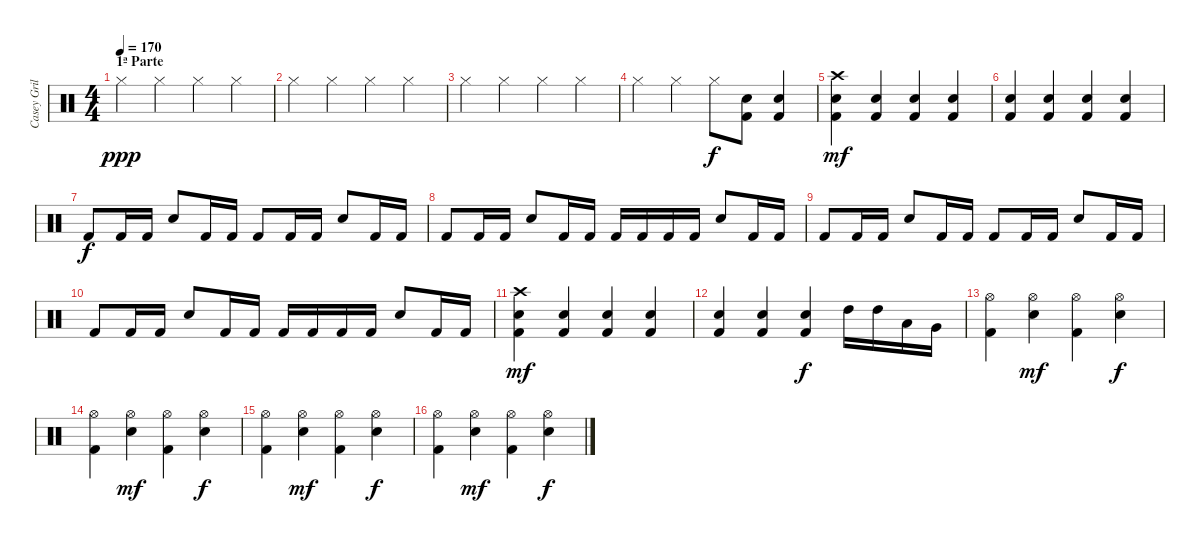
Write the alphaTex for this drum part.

\track ("Casey Grillo" "Casey Gril") {instrument percussion}
\staff {score}
\articulation defaults
\ts (4 4)
\section ("" "1ª Parte")
\tempo 170
\clef neutral
\ks c "Hi-Hat (closed)".4{dy ppp} "Hi-Hat (closed)".4 "Hi-Hat (closed)".4 "Hi-Hat (closed)".4
|
"Hi-Hat (closed)".4 "Hi-Hat (closed)".4 "Hi-Hat (closed)".4 "Hi-Hat (closed)".4 |
"Hi-Hat (closed)".4 "Hi-Hat (closed)".4 "Hi-Hat (closed)".4 "Hi-Hat (closed)".4 |
"Hi-Hat (closed)".4 "Hi-Hat (closed)".4 "Hi-Hat (closed)".8{dy f} ("Snare (hit) 2" "Kick (hit) 2").8 ("Snare (hit) 2" "Kick (hit) 2").4 |
("Snare (hit) 2" "Kick (hit) 2" "Crash high (hit)").4{dy mf} ("Snare (hit) 2" "Kick (hit) 2").4 ("Snare (hit) 2" "Kick (hit) 2").4 ("Snare (hit) 2" "Kick (hit) 2").4 |
("Snare (hit) 2" "Kick (hit) 2").4 ("Snare (hit) 2" "Kick (hit) 2").4 ("Snare (hit) 2" "Kick (hit) 2").4 ("Snare (hit) 2" "Kick (hit) 2").4 |
"Kick (hit) 2".8{dy f} "Kick (hit) 2".16 "Kick (hit) 2".16 "Snare (hit) 2".8 "Kick (hit) 2".16 "Kick (hit) 2".16 "Kick (hit) 2".8 "Kick (hit) 2".16 "Kick (hit) 2".16 "Snare (hit) 2".8 "Kick (hit) 2".16 "Kick (hit) 2".16 |
"Kick (hit) 2".8 "Kick (hit) 2".16 "Kick (hit) 2".16 "Snare (hit) 2".8 "Kick (hit) 2".16 "Kick (hit) 2".16 "Kick (hit) 2".16 "Kick (hit) 2".16 "Kick (hit) 2".16 "Kick (hit) 2".16 "Snare (hit) 2".8 "Kick (hit) 2".16 "Kick (hit) 2".16 |
"Kick (hit) 2".8 "Kick (hit) 2".16 "Kick (hit) 2".16 "Snare (hit) 2".8 "Kick (hit) 2".16 "Kick (hit) 2".16 "Kick (hit) 2".8 "Kick (hit) 2".16 "Kick (hit) 2".16 "Snare (hit) 2".8 "Kick (hit) 2".16 "Kick (hit) 2".16 |
"Kick (hit) 2".8 "Kick (hit) 2".16 "Kick (hit) 2".16 "Snare (hit) 2".8 "Kick (hit) 2".16 "Kick (hit) 2".16 "Kick (hit) 2".16 "Kick (hit) 2".16 "Kick (hit) 2".16 "Kick (hit) 2".16 "Snare (hit) 2".8 "Kick (hit) 2".16 "Kick (hit) 2".16 |
("Snare (hit) 2" "Kick (hit) 2" "Crash high (hit)").4{dy mf} ("Snare (hit) 2" "Kick (hit) 2").4 ("Snare (hit) 2" "Kick (hit) 2").4 ("Snare (hit) 2" "Kick (hit) 2").4 |
("Snare (hit) 2" "Kick (hit) 2").4 ("Snare (hit) 2" "Kick (hit) 2").4 ("Snare (hit) 2" "Kick (hit) 2").4{dy f} "High Tom (hit)".16 "High Tom (hit)".16 "Low Tom (hit)".16 "Very Low Tom (hit)".16 |
("Hi-Hat (open)" "Kick (hit) 2").4 ("Hi-Hat (open)" "Snare (hit) 2").4{dy mf} ("Hi-Hat (open)" "Kick (hit) 2").4 ("Hi-Hat (open)" "Snare (hit) 2").4{dy f} |
("Hi-Hat (open)" "Kick (hit) 2").4 ("Hi-Hat (open)" "Snare (hit) 2").4{dy mf} ("Hi-Hat (open)" "Kick (hit) 2").4 ("Hi-Hat (open)" "Snare (hit) 2").4{dy f} |
("Hi-Hat (open)" "Kick (hit) 2").4 ("Hi-Hat (open)" "Snare (hit) 2").4{dy mf} ("Hi-Hat (open)" "Kick (hit) 2").4 ("Hi-Hat (open)" "Snare (hit) 2").4{dy f} |
("Hi-Hat (open)" "Kick (hit) 2").4 ("Hi-Hat (open)" "Snare (hit) 2").4{dy mf} ("Hi-Hat (open)" "Kick (hit) 2").4 ("Hi-Hat (open)" "Snare (hit) 2").4{dy f}
